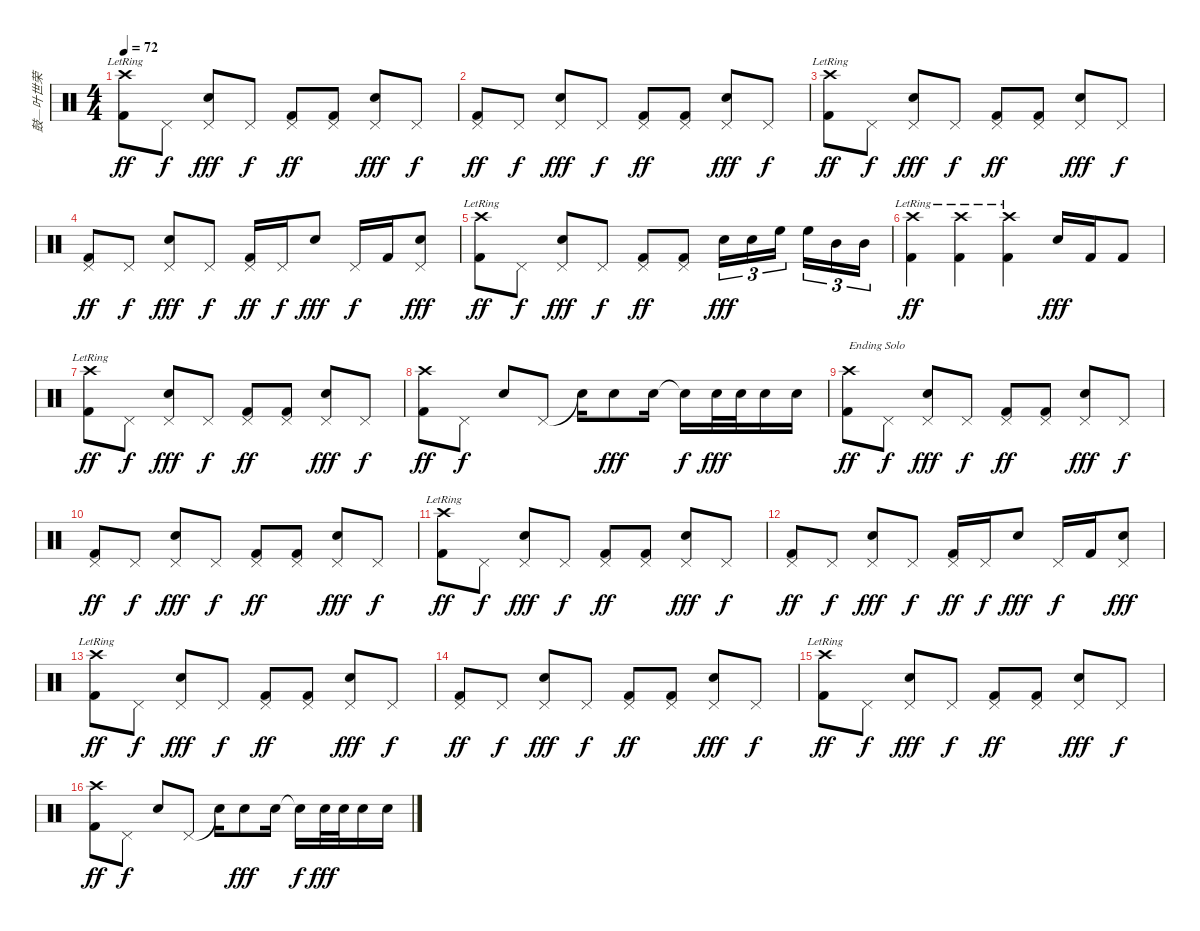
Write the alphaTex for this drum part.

\track ("鼓—叶世荣" "鼓—叶世荣") {instrument percussion}
\staff {score}
\articulation defaults
\ts (4 4)
\tempo 72
\clef neutral
\ks c
("Crash high (hit)"{lr} "Kick (hit) 2").8{dy ff} "Pedal Hi-Hat (hit)".8{dy f} ("Pedal Hi-Hat (hit)" "Electric Snare (hit)").8{dy fff} "Pedal Hi-Hat (hit)".8{dy f} ("Pedal Hi-Hat (hit)" "Kick (hit) 2").8{dy ff} ("Pedal Hi-Hat (hit)" "Kick (hit) 2").8 ("Pedal Hi-Hat (hit)" "Electric Snare (hit)").8{dy fff} "Pedal Hi-Hat (hit)".8{dy f} |
("Pedal Hi-Hat (hit)" "Kick (hit) 2").8{dy ff} "Pedal Hi-Hat (hit)".8{dy f} ("Pedal Hi-Hat (hit)" "Electric Snare (hit)").8{dy fff} "Pedal Hi-Hat (hit)".8{dy f} ("Pedal Hi-Hat (hit)" "Kick (hit) 2").8{dy ff} ("Pedal Hi-Hat (hit)" "Kick (hit) 2").8 ("Pedal Hi-Hat (hit)" "Electric Snare (hit)").8{dy fff} "Pedal Hi-Hat (hit)".8{dy f} |
("Crash high (hit)"{lr} "Kick (hit) 2").8{dy ff} "Pedal Hi-Hat (hit)".8{dy f} ("Pedal Hi-Hat (hit)" "Electric Snare (hit)").8{dy fff} "Pedal Hi-Hat (hit)".8{dy f} ("Pedal Hi-Hat (hit)" "Kick (hit) 2").8{dy ff} ("Pedal Hi-Hat (hit)" "Kick (hit) 2").8 ("Pedal Hi-Hat (hit)" "Electric Snare (hit)").8{dy fff} "Pedal Hi-Hat (hit)".8{dy f} |
("Pedal Hi-Hat (hit)" "Kick (hit) 2").8{dy ff} "Pedal Hi-Hat (hit)".8{dy f} ("Pedal Hi-Hat (hit)" "Electric Snare (hit)").8{dy fff} "Pedal Hi-Hat (hit)".8{dy f} ("Pedal Hi-Hat (hit)" "Kick (hit) 2").16{dy ff} "Pedal Hi-Hat (hit)".16{dy f} "Electric Snare (hit)".8{dy fff} "Pedal Hi-Hat (hit)".16{dy f} "Kick (hit) 2".16 ("Pedal Hi-Hat (hit)" "Electric Snare (hit)").8{dy fff} |
("Crash high (hit)"{lr} "Kick (hit) 2").8{dy ff} "Pedal Hi-Hat (hit)".8{dy f} ("Pedal Hi-Hat (hit)" "Electric Snare (hit)").8{dy fff} "Pedal Hi-Hat (hit)".8{dy f} ("Pedal Hi-Hat (hit)" "Kick (hit) 2").8{dy ff} ("Pedal Hi-Hat (hit)" "Kick (hit) 2").8 "Electric Snare (hit)".16{tu (3 2) dy fff} "Electric Snare (hit)".16{tu (3 2)} "High Floor Tom (hit)".16{tu (3 2) beam splitsecondary} "High Floor Tom (hit)".16{tu (3 2)} "Mid Tom (hit)".16{tu (3 2)} "Mid Tom (hit)".16{tu (3 2)} |
("Crash high (hit)"{lr} "Kick (hit) 2").4{dy ff} ("Crash high (hit)"{lr} "Kick (hit) 2").4 ("Crash high (hit)"{lr} "Kick (hit) 2").4 "Electric Snare (hit)".16{dy fff} "Kick (hit) 2".16 "Kick (hit) 2".8 |
("Crash high (hit)"{lr} "Kick (hit) 2").8{dy ff} "Pedal Hi-Hat (hit)".8{dy f} ("Pedal Hi-Hat (hit)" "Electric Snare (hit)").8{dy fff} "Pedal Hi-Hat (hit)".8{dy f} ("Pedal Hi-Hat (hit)" "Kick (hit) 2").8{dy ff} ("Pedal Hi-Hat (hit)" "Kick (hit) 2").8 ("Pedal Hi-Hat (hit)" "Electric Snare (hit)").8{dy fff} "Pedal Hi-Hat (hit)".8{dy f} |
("Crash high (hit)" "Kick (hit) 2").8{dy ff} "Pedal Hi-Hat (hit)".8{dy f} "Electric Snare (hit)".8 "Pedal Hi-Hat (hit)".8 "Snare (hit)"{t}.16 "Electric Snare (hit)".8{dy fff} "Electric Snare (hit)".16 "Snare (hit)"{t}.16{dy f} "Electric Snare (hit)".32{dy fff} "Electric Snare (hit)".32 "Electric Snare (hit)".16 "Electric Snare (hit)".16 |
("Crash high (hit)" "Kick (hit) 2").8{txt "Ending Solo" dy ff} "Pedal Hi-Hat (hit)".8{dy f} ("Pedal Hi-Hat (hit)" "Electric Snare (hit)").8{dy fff} "Pedal Hi-Hat (hit)".8{dy f} ("Pedal Hi-Hat (hit)" "Kick (hit) 2").8{dy ff} ("Pedal Hi-Hat (hit)" "Kick (hit) 2").8 ("Pedal Hi-Hat (hit)" "Electric Snare (hit)").8{dy fff} "Pedal Hi-Hat (hit)".8{dy f} |
("Pedal Hi-Hat (hit)" "Kick (hit) 2").8{dy ff} "Pedal Hi-Hat (hit)".8{dy f} ("Pedal Hi-Hat (hit)" "Electric Snare (hit)").8{dy fff} "Pedal Hi-Hat (hit)".8{dy f} ("Pedal Hi-Hat (hit)" "Kick (hit) 2").8{dy ff} ("Pedal Hi-Hat (hit)" "Kick (hit) 2").8 ("Pedal Hi-Hat (hit)" "Electric Snare (hit)").8{dy fff} "Pedal Hi-Hat (hit)".8{dy f} |
("Crash high (hit)"{lr} "Kick (hit) 2").8{dy ff} "Pedal Hi-Hat (hit)".8{dy f} ("Pedal Hi-Hat (hit)" "Electric Snare (hit)").8{dy fff} "Pedal Hi-Hat (hit)".8{dy f} ("Pedal Hi-Hat (hit)" "Kick (hit) 2").8{dy ff} ("Pedal Hi-Hat (hit)" "Kick (hit) 2").8 ("Pedal Hi-Hat (hit)" "Electric Snare (hit)").8{dy fff} "Pedal Hi-Hat (hit)".8{dy f} |
("Pedal Hi-Hat (hit)" "Kick (hit) 2").8{dy ff} "Pedal Hi-Hat (hit)".8{dy f} ("Pedal Hi-Hat (hit)" "Electric Snare (hit)").8{dy fff} "Pedal Hi-Hat (hit)".8{dy f} ("Pedal Hi-Hat (hit)" "Kick (hit) 2").16{dy ff} "Pedal Hi-Hat (hit)".16{dy f} "Electric Snare (hit)".8{dy fff} "Pedal Hi-Hat (hit)".16{dy f} "Kick (hit) 2".16 ("Pedal Hi-Hat (hit)" "Electric Snare (hit)").8{dy fff} |
("Crash high (hit)"{lr} "Kick (hit) 2").8{dy ff} "Pedal Hi-Hat (hit)".8{dy f} ("Pedal Hi-Hat (hit)" "Electric Snare (hit)").8{dy fff} "Pedal Hi-Hat (hit)".8{dy f} ("Pedal Hi-Hat (hit)" "Kick (hit) 2").8{dy ff} ("Pedal Hi-Hat (hit)" "Kick (hit) 2").8 ("Pedal Hi-Hat (hit)" "Electric Snare (hit)").8{dy fff} "Pedal Hi-Hat (hit)".8{dy f} |
("Pedal Hi-Hat (hit)" "Kick (hit) 2").8{dy ff} "Pedal Hi-Hat (hit)".8{dy f} ("Pedal Hi-Hat (hit)" "Electric Snare (hit)").8{dy fff} "Pedal Hi-Hat (hit)".8{dy f} ("Pedal Hi-Hat (hit)" "Kick (hit) 2").8{dy ff} ("Pedal Hi-Hat (hit)" "Kick (hit) 2").8 ("Pedal Hi-Hat (hit)" "Electric Snare (hit)").8{dy fff} "Pedal Hi-Hat (hit)".8{dy f} |
("Crash high (hit)"{lr} "Kick (hit) 2").8{dy ff} "Pedal Hi-Hat (hit)".8{dy f} ("Pedal Hi-Hat (hit)" "Electric Snare (hit)").8{dy fff} "Pedal Hi-Hat (hit)".8{dy f} ("Pedal Hi-Hat (hit)" "Kick (hit) 2").8{dy ff} ("Pedal Hi-Hat (hit)" "Kick (hit) 2").8 ("Pedal Hi-Hat (hit)" "Electric Snare (hit)").8{dy fff} "Pedal Hi-Hat (hit)".8{dy f} |
("Crash high (hit)" "Kick (hit) 2").8{dy ff} "Pedal Hi-Hat (hit)".8{dy f} "Electric Snare (hit)".8 "Pedal Hi-Hat (hit)".8 "Snare (hit)"{t}.16 "Electric Snare (hit)".8{dy fff} "Electric Snare (hit)".16 "Snare (hit)"{t}.16{dy f} "Electric Snare (hit)".32{dy fff} "Electric Snare (hit)".32 "Electric Snare (hit)".16 "Electric Snare (hit)".16
